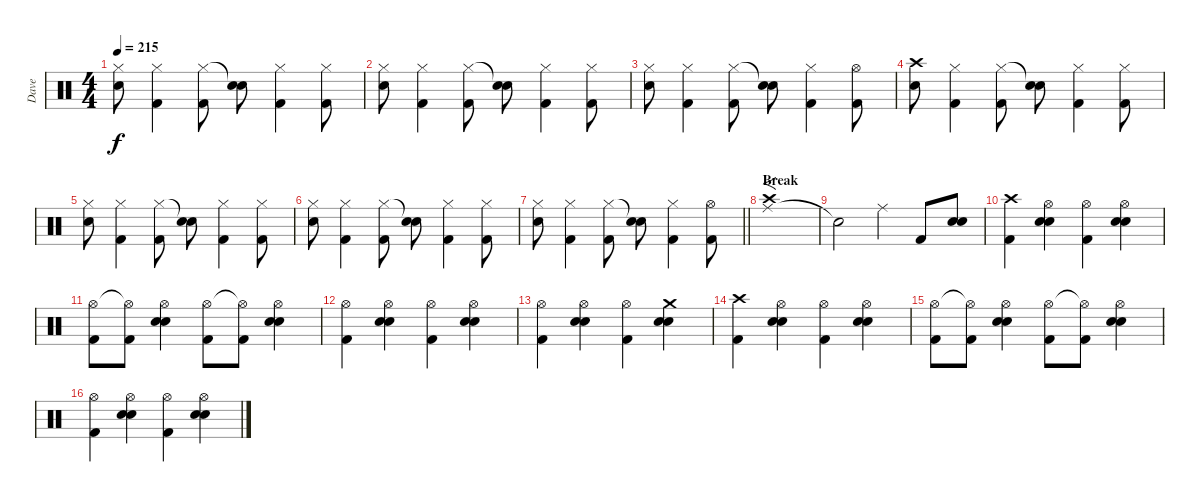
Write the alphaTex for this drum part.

\track ("Dave" "Dave") {instrument percussion}
\staff {score}
\articulation defaults
\ts (4 4)
\tempo 215
\clef neutral
\ks c
("Hi-Hat (closed)" "Electric Snare (hit)").8{dy f} ("Hi-Hat (closed)" "Kick (hit) 2").4 ("Hi-Hat (closed)" "Kick (hit) 2").8 ("Snare (hit)"{t} "Electric Snare (hit)").8 ("Hi-Hat (closed)" "Kick (hit) 2").4 ("Hi-Hat (closed)" "Kick (hit) 2").8 |
("Hi-Hat (closed)" "Electric Snare (hit)").8 ("Hi-Hat (closed)" "Kick (hit) 2").4 ("Hi-Hat (closed)" "Kick (hit) 2").8 ("Snare (hit)"{t} "Electric Snare (hit)").8 ("Hi-Hat (closed)" "Kick (hit) 2").4 ("Hi-Hat (closed)" "Kick (hit) 2").8 |
("Hi-Hat (closed)" "Electric Snare (hit)").8 ("Hi-Hat (closed)" "Kick (hit) 2").4 ("Hi-Hat (closed)" "Kick (hit) 2").8 ("Snare (hit)"{t} "Electric Snare (hit)").8 ("Hi-Hat (closed)" "Kick (hit) 2").4 ("Hi-Hat (open)" "Kick (hit) 2").8 |
("Crash high (hit)" "Electric Snare (hit)").8 ("Hi-Hat (closed)" "Kick (hit) 2").4 ("Hi-Hat (closed)" "Kick (hit) 2").8 ("Snare (hit)"{t} "Electric Snare (hit)").8 ("Hi-Hat (closed)" "Kick (hit) 2").4 ("Hi-Hat (closed)" "Kick (hit) 2").8 |
("Hi-Hat (closed)" "Electric Snare (hit)").8 ("Hi-Hat (closed)" "Kick (hit) 2").4 ("Hi-Hat (closed)" "Kick (hit) 2").8 ("Snare (hit)"{t} "Electric Snare (hit)").8 ("Hi-Hat (closed)" "Kick (hit) 2").4 ("Hi-Hat (closed)" "Kick (hit) 2").8 |
("Hi-Hat (closed)" "Electric Snare (hit)").8 ("Hi-Hat (closed)" "Kick (hit) 2").4 ("Hi-Hat (closed)" "Kick (hit) 2").8 ("Snare (hit)"{t} "Electric Snare (hit)").8 ("Hi-Hat (closed)" "Kick (hit) 2").4 ("Hi-Hat (closed)" "Kick (hit) 2").8 |
\barLineRight lightlight
("Hi-Hat (closed)" "Electric Snare (hit)").8 ("Hi-Hat (closed)" "Kick (hit) 2").4 ("Hi-Hat (closed)" "Kick (hit) 2").8 ("Snare (hit)"{t} "Electric Snare (hit)").8 ("Hi-Hat (closed)" "Kick (hit) 2").4 ("Hi-Hat (open)" "Kick (hit) 2").8 |
\section ("" "Break")
("Ride (middle)" "Crash high (hit)").1{f} |
"Snare (hit)"{t}.2 "Ride (middle)".4 "Kick (hit) 2".8 ("Electric Snare (hit)" "Electric Snare (hit)").8 |
("Crash high (hit)" "Kick (hit) 2").4 ("Hi-Hat (open)" "Electric Snare (hit)" "Electric Snare (hit)").4 ("Hi-Hat (open)" "Kick (hit) 2").4 ("Hi-Hat (open)" "Electric Snare (hit)" "Electric Snare (hit)").4 |
("Hi-Hat (open)" "Kick (hit) 2").8 ("Hi-Hat (open)"{t} "Kick (hit) 2").8 ("Hi-Hat (open)" "Electric Snare (hit)" "Electric Snare (hit)").4 ("Hi-Hat (open)" "Kick (hit) 2").8 ("Hi-Hat (open)"{t} "Kick (hit) 2").8 ("Hi-Hat (open)" "Electric Snare (hit)" "Electric Snare (hit)").4 |
("Hi-Hat (open)" "Kick (hit) 2").4 ("Hi-Hat (open)" "Electric Snare (hit)" "Electric Snare (hit)").4 ("Hi-Hat (open)" "Kick (hit) 2").4 ("Hi-Hat (open)" "Electric Snare (hit)" "Electric Snare (hit)").4 |
("Hi-Hat (open)" "Kick (hit) 2").4 ("Hi-Hat (open)" "Electric Snare (hit)" "Electric Snare (hit)").4 ("Hi-Hat (open)" "Kick (hit) 2").4 ("Crash medium (hit)" "Electric Snare (hit)" "Electric Snare (hit)").4 |
("Crash high (hit)" "Kick (hit) 2").4 ("Hi-Hat (open)" "Electric Snare (hit)" "Electric Snare (hit)").4 ("Hi-Hat (open)" "Kick (hit) 2").4 ("Hi-Hat (open)" "Electric Snare (hit)" "Electric Snare (hit)").4 |
("Hi-Hat (open)" "Kick (hit) 2").8 ("Hi-Hat (open)"{t} "Kick (hit) 2").8 ("Hi-Hat (open)" "Electric Snare (hit)" "Electric Snare (hit)").4 ("Hi-Hat (open)" "Kick (hit) 2").8 ("Hi-Hat (open)"{t} "Kick (hit) 2").8 ("Hi-Hat (open)" "Electric Snare (hit)" "Electric Snare (hit)").4 |
("Hi-Hat (open)" "Kick (hit) 2").4 ("Hi-Hat (open)" "Electric Snare (hit)" "Electric Snare (hit)").4 ("Hi-Hat (open)" "Kick (hit) 2").4 ("Hi-Hat (open)" "Electric Snare (hit)" "Electric Snare (hit)").4
